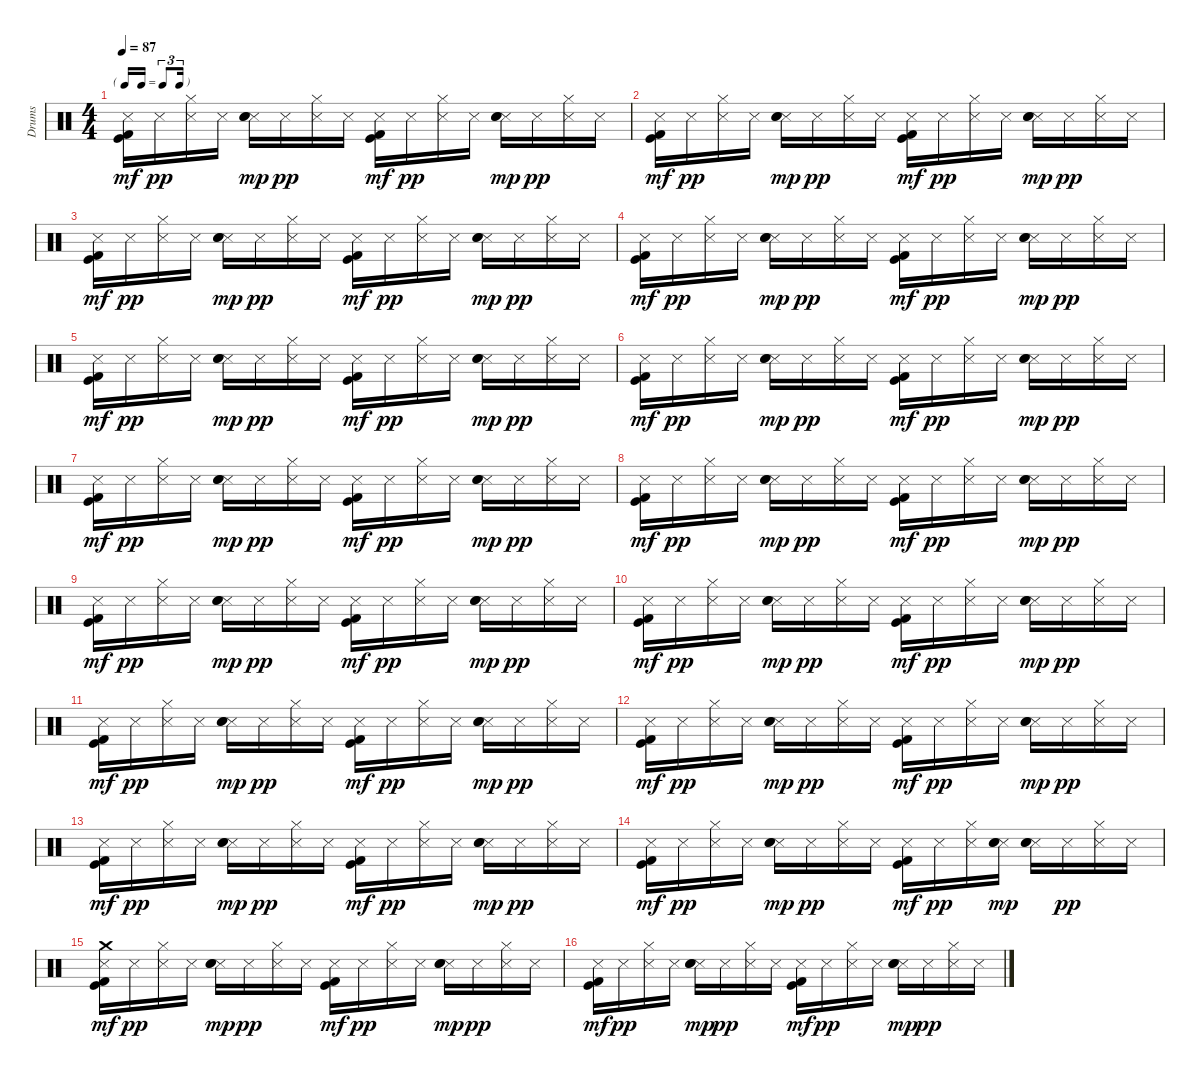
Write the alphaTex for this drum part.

\track ("Drums" "Drums") {instrument percussion}
\staff {score}
\articulation defaults
\ts (4 4)
\tf triplet16th
\tempo 87
\clef neutral
\ks c
("Metronome (hit)" "Kick (hit)" "Kick (hit) 2").16{dy mf} "Metronome (hit)".16{dy pp} ("Hi-Hat (closed)" "Metronome (hit)").16 "Metronome (hit)".16 ("Metronome (hit)" "Electric Snare (hit)" "Snare (hit) 2").16{dy mp} "Metronome (hit)".16{dy pp} ("Hi-Hat (closed)" "Metronome (hit)").16 "Metronome (hit)".16 ("Metronome (hit)" "Kick (hit)" "Kick (hit) 2").16{dy mf} "Metronome (hit)".16{dy pp} ("Hi-Hat (closed)" "Metronome (hit)").16 "Metronome (hit)".16 ("Metronome (hit)" "Electric Snare (hit)" "Snare (hit) 2").16{dy mp} "Metronome (hit)".16{dy pp} ("Hi-Hat (closed)" "Metronome (hit)").16 "Metronome (hit)".16 |
("Metronome (hit)" "Kick (hit)" "Kick (hit) 2").16{dy mf} "Metronome (hit)".16{dy pp} ("Hi-Hat (closed)" "Metronome (hit)").16 "Metronome (hit)".16 ("Metronome (hit)" "Electric Snare (hit)" "Snare (hit) 2").16{dy mp} "Metronome (hit)".16{dy pp} ("Hi-Hat (closed)" "Metronome (hit)").16 "Metronome (hit)".16 ("Metronome (hit)" "Kick (hit)" "Kick (hit) 2").16{dy mf} "Metronome (hit)".16{dy pp} ("Hi-Hat (closed)" "Metronome (hit)").16 "Metronome (hit)".16 ("Metronome (hit)" "Electric Snare (hit)" "Snare (hit) 2").16{dy mp} "Metronome (hit)".16{dy pp} ("Hi-Hat (closed)" "Metronome (hit)").16 "Metronome (hit)".16 |
("Metronome (hit)" "Kick (hit)" "Kick (hit) 2").16{dy mf} "Metronome (hit)".16{dy pp} ("Hi-Hat (closed)" "Metronome (hit)").16 "Metronome (hit)".16 ("Metronome (hit)" "Electric Snare (hit)" "Snare (hit) 2").16{dy mp} "Metronome (hit)".16{dy pp} ("Hi-Hat (closed)" "Metronome (hit)").16 "Metronome (hit)".16 ("Metronome (hit)" "Kick (hit)" "Kick (hit) 2").16{dy mf} "Metronome (hit)".16{dy pp} ("Hi-Hat (closed)" "Metronome (hit)").16 "Metronome (hit)".16 ("Metronome (hit)" "Electric Snare (hit)" "Snare (hit) 2").16{dy mp} "Metronome (hit)".16{dy pp} ("Hi-Hat (closed)" "Metronome (hit)").16 "Metronome (hit)".16 |
("Metronome (hit)" "Kick (hit)" "Kick (hit) 2").16{dy mf} "Metronome (hit)".16{dy pp} ("Hi-Hat (closed)" "Metronome (hit)").16 "Metronome (hit)".16 ("Metronome (hit)" "Electric Snare (hit)" "Snare (hit) 2").16{dy mp} "Metronome (hit)".16{dy pp} ("Hi-Hat (closed)" "Metronome (hit)").16 "Metronome (hit)".16 ("Metronome (hit)" "Kick (hit)" "Kick (hit) 2").16{dy mf} "Metronome (hit)".16{dy pp} ("Hi-Hat (closed)" "Metronome (hit)").16 "Metronome (hit)".16 ("Metronome (hit)" "Electric Snare (hit)" "Snare (hit) 2").16{dy mp} "Metronome (hit)".16{dy pp} ("Hi-Hat (closed)" "Metronome (hit)").16 "Metronome (hit)".16 |
("Metronome (hit)" "Kick (hit)" "Kick (hit) 2").16{dy mf} "Metronome (hit)".16{dy pp} ("Hi-Hat (closed)" "Metronome (hit)").16 "Metronome (hit)".16 ("Metronome (hit)" "Electric Snare (hit)" "Snare (hit) 2").16{dy mp} "Metronome (hit)".16{dy pp} ("Hi-Hat (closed)" "Metronome (hit)").16 "Metronome (hit)".16 ("Metronome (hit)" "Kick (hit)" "Kick (hit) 2").16{dy mf} "Metronome (hit)".16{dy pp} ("Hi-Hat (closed)" "Metronome (hit)").16 "Metronome (hit)".16 ("Metronome (hit)" "Electric Snare (hit)" "Snare (hit) 2").16{dy mp} "Metronome (hit)".16{dy pp} ("Hi-Hat (closed)" "Metronome (hit)").16 "Metronome (hit)".16 |
("Metronome (hit)" "Kick (hit)" "Kick (hit) 2").16{dy mf} "Metronome (hit)".16{dy pp} ("Hi-Hat (closed)" "Metronome (hit)").16 "Metronome (hit)".16 ("Metronome (hit)" "Electric Snare (hit)" "Snare (hit) 2").16{dy mp} "Metronome (hit)".16{dy pp} ("Hi-Hat (closed)" "Metronome (hit)").16 "Metronome (hit)".16 ("Metronome (hit)" "Kick (hit)" "Kick (hit) 2").16{dy mf} "Metronome (hit)".16{dy pp} ("Hi-Hat (closed)" "Metronome (hit)").16 "Metronome (hit)".16 ("Metronome (hit)" "Electric Snare (hit)" "Snare (hit) 2").16{dy mp} "Metronome (hit)".16{dy pp} ("Hi-Hat (closed)" "Metronome (hit)").16 "Metronome (hit)".16 |
("Metronome (hit)" "Kick (hit)" "Kick (hit) 2").16{dy mf} "Metronome (hit)".16{dy pp} ("Hi-Hat (closed)" "Metronome (hit)").16 "Metronome (hit)".16 ("Metronome (hit)" "Electric Snare (hit)" "Snare (hit) 2").16{dy mp} "Metronome (hit)".16{dy pp} ("Hi-Hat (closed)" "Metronome (hit)").16 "Metronome (hit)".16 ("Metronome (hit)" "Kick (hit)" "Kick (hit) 2").16{dy mf} "Metronome (hit)".16{dy pp} ("Hi-Hat (closed)" "Metronome (hit)").16 "Metronome (hit)".16 ("Metronome (hit)" "Electric Snare (hit)" "Snare (hit) 2").16{dy mp} "Metronome (hit)".16{dy pp} ("Hi-Hat (closed)" "Metronome (hit)").16 "Metronome (hit)".16 |
("Metronome (hit)" "Kick (hit)" "Kick (hit) 2").16{dy mf} "Metronome (hit)".16{dy pp} ("Hi-Hat (closed)" "Metronome (hit)").16 "Metronome (hit)".16 ("Metronome (hit)" "Electric Snare (hit)" "Snare (hit) 2").16{dy mp} "Metronome (hit)".16{dy pp} ("Hi-Hat (closed)" "Metronome (hit)").16 "Metronome (hit)".16 ("Metronome (hit)" "Kick (hit)" "Kick (hit) 2").16{dy mf} "Metronome (hit)".16{dy pp} ("Hi-Hat (closed)" "Metronome (hit)").16 "Metronome (hit)".16 ("Metronome (hit)" "Electric Snare (hit)" "Snare (hit) 2").16{dy mp} "Metronome (hit)".16{dy pp} ("Hi-Hat (closed)" "Metronome (hit)").16 "Metronome (hit)".16 |
("Metronome (hit)" "Kick (hit)" "Kick (hit) 2").16{dy mf} "Metronome (hit)".16{dy pp} ("Hi-Hat (closed)" "Metronome (hit)").16 "Metronome (hit)".16 ("Metronome (hit)" "Electric Snare (hit)" "Snare (hit) 2").16{dy mp} "Metronome (hit)".16{dy pp} ("Hi-Hat (closed)" "Metronome (hit)").16 "Metronome (hit)".16 ("Metronome (hit)" "Kick (hit)" "Kick (hit) 2").16{dy mf} "Metronome (hit)".16{dy pp} ("Hi-Hat (closed)" "Metronome (hit)").16 "Metronome (hit)".16 ("Metronome (hit)" "Electric Snare (hit)" "Snare (hit) 2").16{dy mp} "Metronome (hit)".16{dy pp} ("Hi-Hat (closed)" "Metronome (hit)").16 "Metronome (hit)".16 |
("Metronome (hit)" "Kick (hit)" "Kick (hit) 2").16{dy mf} "Metronome (hit)".16{dy pp} ("Hi-Hat (closed)" "Metronome (hit)").16 "Metronome (hit)".16 ("Metronome (hit)" "Electric Snare (hit)" "Snare (hit) 2").16{dy mp} "Metronome (hit)".16{dy pp} ("Hi-Hat (closed)" "Metronome (hit)").16 "Metronome (hit)".16 ("Metronome (hit)" "Kick (hit)" "Kick (hit) 2").16{dy mf} "Metronome (hit)".16{dy pp} ("Hi-Hat (closed)" "Metronome (hit)").16 "Metronome (hit)".16 ("Metronome (hit)" "Electric Snare (hit)" "Snare (hit) 2").16{dy mp} "Metronome (hit)".16{dy pp} ("Hi-Hat (closed)" "Metronome (hit)").16 "Metronome (hit)".16 |
("Metronome (hit)" "Kick (hit)" "Kick (hit) 2").16{dy mf} "Metronome (hit)".16{dy pp} ("Hi-Hat (closed)" "Metronome (hit)").16 "Metronome (hit)".16 ("Metronome (hit)" "Electric Snare (hit)" "Snare (hit) 2").16{dy mp} "Metronome (hit)".16{dy pp} ("Hi-Hat (closed)" "Metronome (hit)").16 "Metronome (hit)".16 ("Metronome (hit)" "Kick (hit)" "Kick (hit) 2").16{dy mf} "Metronome (hit)".16{dy pp} ("Hi-Hat (closed)" "Metronome (hit)").16 "Metronome (hit)".16 ("Metronome (hit)" "Electric Snare (hit)" "Snare (hit) 2").16{dy mp} "Metronome (hit)".16{dy pp} ("Hi-Hat (closed)" "Metronome (hit)").16 "Metronome (hit)".16 |
("Metronome (hit)" "Kick (hit)" "Kick (hit) 2").16{dy mf} "Metronome (hit)".16{dy pp} ("Hi-Hat (closed)" "Metronome (hit)").16 "Metronome (hit)".16 ("Metronome (hit)" "Electric Snare (hit)" "Snare (hit) 2").16{dy mp} "Metronome (hit)".16{dy pp} ("Hi-Hat (closed)" "Metronome (hit)").16 "Metronome (hit)".16 ("Metronome (hit)" "Kick (hit)" "Kick (hit) 2").16{dy mf} "Metronome (hit)".16{dy pp} ("Hi-Hat (closed)" "Metronome (hit)").16 "Metronome (hit)".16 ("Metronome (hit)" "Electric Snare (hit)" "Snare (hit) 2").16{dy mp} "Metronome (hit)".16{dy pp} ("Hi-Hat (closed)" "Metronome (hit)").16 "Metronome (hit)".16 |
("Metronome (hit)" "Kick (hit)" "Kick (hit) 2").16{dy mf} "Metronome (hit)".16{dy pp} ("Hi-Hat (closed)" "Metronome (hit)").16 "Metronome (hit)".16 ("Metronome (hit)" "Electric Snare (hit)" "Snare (hit) 2").16{dy mp} "Metronome (hit)".16{dy pp} ("Hi-Hat (closed)" "Metronome (hit)").16 "Metronome (hit)".16 ("Metronome (hit)" "Kick (hit)" "Kick (hit) 2").16{dy mf} "Metronome (hit)".16{dy pp} ("Hi-Hat (closed)" "Metronome (hit)").16 "Metronome (hit)".16 ("Metronome (hit)" "Electric Snare (hit)" "Snare (hit) 2").16{dy mp} "Metronome (hit)".16{dy pp} ("Hi-Hat (closed)" "Metronome (hit)").16 "Metronome (hit)".16 |
("Metronome (hit)" "Kick (hit)" "Kick (hit) 2").16{dy mf} "Metronome (hit)".16{dy pp} ("Hi-Hat (closed)" "Metronome (hit)").16 "Metronome (hit)".16 ("Metronome (hit)" "Electric Snare (hit)" "Snare (hit) 2").16{dy mp} "Metronome (hit)".16{dy pp} ("Hi-Hat (closed)" "Metronome (hit)").16 "Metronome (hit)".16 ("Metronome (hit)" "Kick (hit)" "Kick (hit) 2").16{dy mf} "Metronome (hit)".16{dy pp} ("Hi-Hat (closed)" "Metronome (hit)").16 ("Metronome (hit)" "Electric Snare (hit)" "Snare (hit) 2").16{dy mp} ("Metronome (hit)" "Electric Snare (hit)" "Snare (hit) 2").16 "Metronome (hit)".16{dy pp} ("Hi-Hat (closed)" "Metronome (hit)").16 "Metronome (hit)".16 |
("Metronome (hit)" "Crash medium (hit)" "Kick (hit)" "Kick (hit) 2").16{dy mf} "Metronome (hit)".16{dy pp} ("Hi-Hat (closed)" "Metronome (hit)").16 "Metronome (hit)".16 ("Metronome (hit)" "Electric Snare (hit)" "Snare (hit) 2").16{dy mp} "Metronome (hit)".16{dy pp} ("Hi-Hat (closed)" "Metronome (hit)").16 "Metronome (hit)".16 ("Metronome (hit)" "Kick (hit)" "Kick (hit) 2").16{dy mf} "Metronome (hit)".16{dy pp} ("Hi-Hat (closed)" "Metronome (hit)").16 "Metronome (hit)".16 ("Metronome (hit)" "Electric Snare (hit)" "Snare (hit) 2").16{dy mp} "Metronome (hit)".16{dy pp} ("Hi-Hat (closed)" "Metronome (hit)").16 "Metronome (hit)".16 |
("Metronome (hit)" "Kick (hit)" "Kick (hit) 2").16{dy mf} "Metronome (hit)".16{dy pp} ("Hi-Hat (closed)" "Metronome (hit)").16 "Metronome (hit)".16 ("Metronome (hit)" "Electric Snare (hit)" "Snare (hit) 2").16{dy mp} "Metronome (hit)".16{dy pp} ("Hi-Hat (closed)" "Metronome (hit)").16 "Metronome (hit)".16 ("Metronome (hit)" "Kick (hit)" "Kick (hit) 2").16{dy mf} "Metronome (hit)".16{dy pp} ("Hi-Hat (closed)" "Metronome (hit)").16 "Metronome (hit)".16 ("Metronome (hit)" "Electric Snare (hit)" "Snare (hit) 2").16{dy mp} "Metronome (hit)".16{dy pp} ("Hi-Hat (closed)" "Metronome (hit)").16 "Metronome (hit)".16
